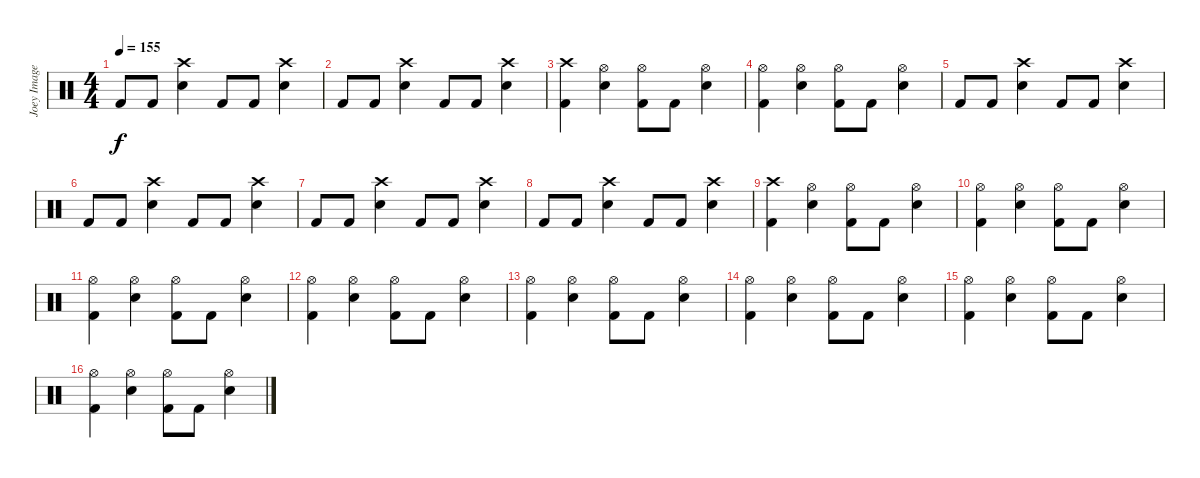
\track ("Joey Image" "Joey Image") {instrument percussion}
\staff {score}
\articulation defaults
\ts (4 4)
\tempo 155
\clef neutral
\ks c "Kick (hit) 2".8{dy f} "Kick (hit) 2".8
("Crash high (hit)" "Snare (hit) 2").4 "Kick (hit) 2".8 "Kick (hit) 2".8 ("Crash high (hit)" "Snare (hit) 2").4 |
"Kick (hit) 2".8 "Kick (hit) 2".8 ("Crash high (hit)" "Snare (hit) 2").4 "Kick (hit) 2".8 "Kick (hit) 2".8 ("Crash high (hit)" "Snare (hit) 2").4 |
("Crash high (hit)" "Kick (hit) 2").4 ("Hi-Hat (open)" "Snare (hit) 2").4 ("Hi-Hat (open)" "Kick (hit) 2").8 "Kick (hit) 2".8 ("Hi-Hat (open)" "Snare (hit) 2").4 |
("Hi-Hat (open)" "Kick (hit) 2").4 ("Hi-Hat (open)" "Snare (hit) 2").4 ("Hi-Hat (open)" "Kick (hit) 2").8 "Kick (hit) 2".8 ("Hi-Hat (open)" "Snare (hit) 2").4 |
"Kick (hit) 2".8 "Kick (hit) 2".8 ("Crash high (hit)" "Snare (hit) 2").4 "Kick (hit) 2".8 "Kick (hit) 2".8 ("Crash high (hit)" "Snare (hit) 2").4 |
"Kick (hit) 2".8 "Kick (hit) 2".8 ("Crash high (hit)" "Snare (hit) 2").4 "Kick (hit) 2".8 "Kick (hit) 2".8 ("Crash high (hit)" "Snare (hit) 2").4 |
"Kick (hit) 2".8 "Kick (hit) 2".8 ("Crash high (hit)" "Snare (hit) 2").4 "Kick (hit) 2".8 "Kick (hit) 2".8 ("Crash high (hit)" "Snare (hit) 2").4 |
"Kick (hit) 2".8 "Kick (hit) 2".8 ("Crash high (hit)" "Snare (hit) 2").4 "Kick (hit) 2".8 "Kick (hit) 2".8 ("Crash high (hit)" "Snare (hit) 2").4 |
("Crash high (hit)" "Kick (hit) 2").4 ("Hi-Hat (open)" "Snare (hit) 2").4 ("Hi-Hat (open)" "Kick (hit) 2").8 "Kick (hit) 2".8 ("Hi-Hat (open)" "Snare (hit) 2").4 |
("Hi-Hat (open)" "Kick (hit) 2").4 ("Hi-Hat (open)" "Snare (hit) 2").4 ("Hi-Hat (open)" "Kick (hit) 2").8 "Kick (hit) 2".8 ("Hi-Hat (open)" "Snare (hit) 2").4 |
("Hi-Hat (open)" "Kick (hit) 2").4 ("Hi-Hat (open)" "Snare (hit) 2").4 ("Hi-Hat (open)" "Kick (hit) 2").8 "Kick (hit) 2".8 ("Hi-Hat (open)" "Snare (hit) 2").4 |
("Hi-Hat (open)" "Kick (hit) 2").4 ("Hi-Hat (open)" "Snare (hit) 2").4 ("Hi-Hat (open)" "Kick (hit) 2").8 "Kick (hit) 2".8 ("Hi-Hat (open)" "Snare (hit) 2").4 |
("Hi-Hat (open)" "Kick (hit) 2").4 ("Hi-Hat (open)" "Snare (hit) 2").4 ("Hi-Hat (open)" "Kick (hit) 2").8 "Kick (hit) 2".8 ("Hi-Hat (open)" "Snare (hit) 2").4 |
("Hi-Hat (open)" "Kick (hit) 2").4 ("Hi-Hat (open)" "Snare (hit) 2").4 ("Hi-Hat (open)" "Kick (hit) 2").8 "Kick (hit) 2".8 ("Hi-Hat (open)" "Snare (hit) 2").4 |
("Hi-Hat (open)" "Kick (hit) 2").4 ("Hi-Hat (open)" "Snare (hit) 2").4 ("Hi-Hat (open)" "Kick (hit) 2").8 "Kick (hit) 2".8 ("Hi-Hat (open)" "Snare (hit) 2").4 |
("Hi-Hat (open)" "Kick (hit) 2").4 ("Hi-Hat (open)" "Snare (hit) 2").4 ("Hi-Hat (open)" "Kick (hit) 2").8 "Kick (hit) 2".8 ("Hi-Hat (open)" "Snare (hit) 2").4
